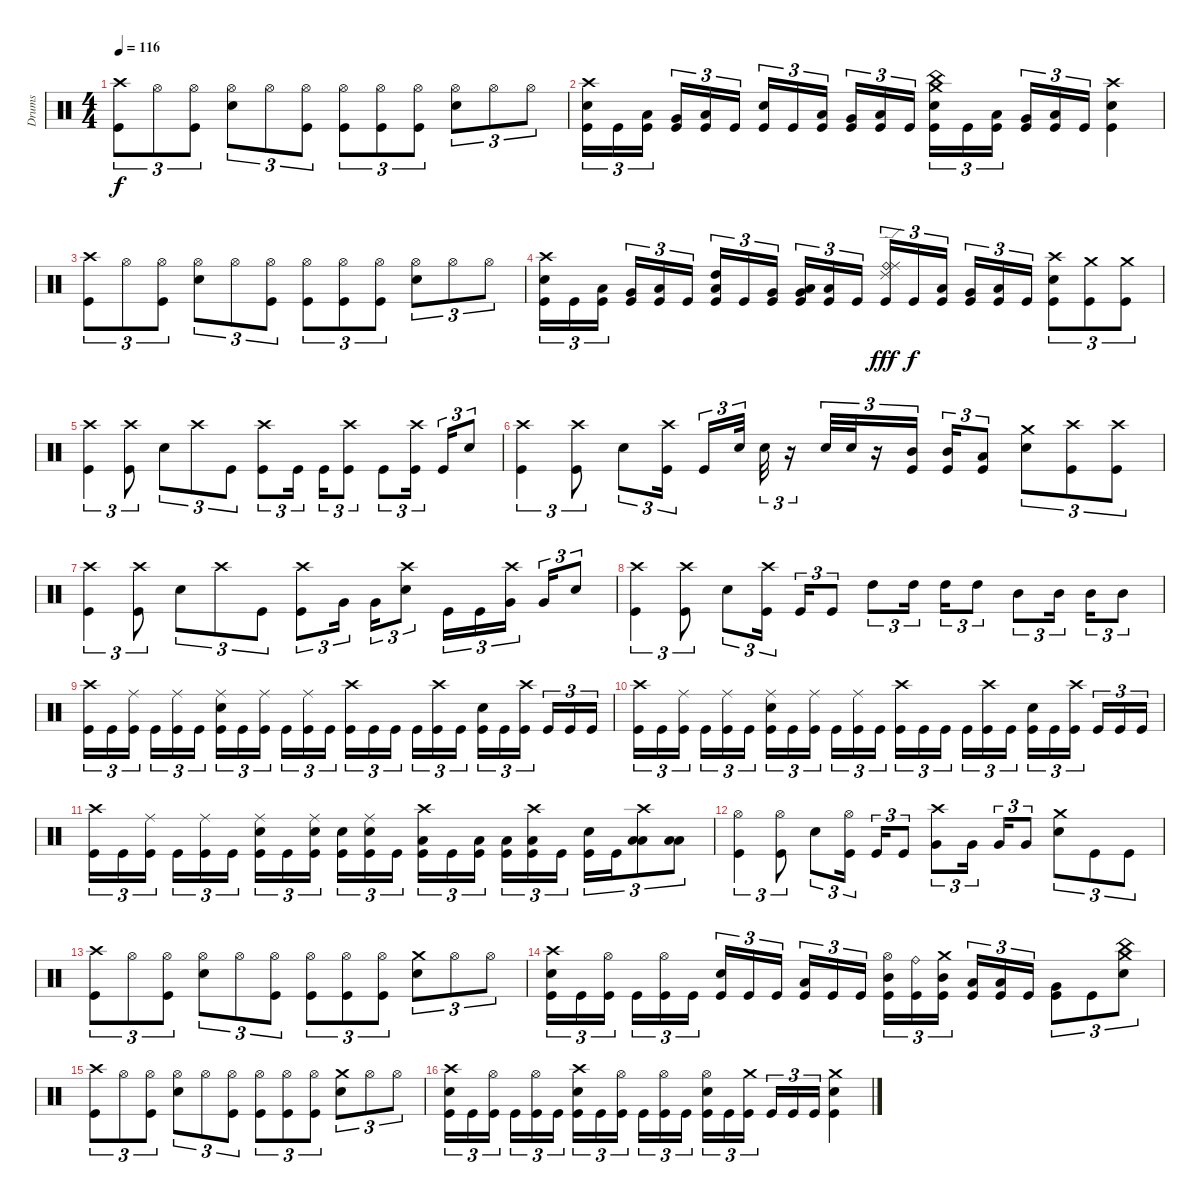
\track ("Drums" "Drums") {instrument percussion}
\staff {score}
\articulation defaults
\ts (4 4)
\tempo 116
\clef neutral
\ks c
("Crash high (hit)" "Kick (hit)").8{tu (3 2) dy f} "Hi-Hat (open)".8{tu (3 2)} ("Hi-Hat (open)" "Kick (hit)").8{tu (3 2)} ("Hi-Hat (open)" "Electric Snare (hit)").8{tu (3 2)} "Hi-Hat (open)".8{tu (3 2)} ("Hi-Hat (open)" "Kick (hit)").8{tu (3 2)} ("Hi-Hat (open)" "Kick (hit)").8{tu (3 2)} ("Hi-Hat (open)" "Kick (hit)").8{tu (3 2)} ("Hi-Hat (open)" "Kick (hit)").8{tu (3 2)} ("Hi-Hat (open)" "Electric Snare (hit)").8{tu (3 2)} "Hi-Hat (open)".8{tu (3 2)} "Hi-Hat (open)".8{tu (3 2)} |
("Crash high (hit)" "Electric Snare (hit)" "Kick (hit)").16{tu (3 2)} "Kick (hit)".16{tu (3 2)} ("Low Tom (hit)" "Kick (hit)").16{tu (3 2)} ("Very Low Tom (hit)" "Kick (hit)").16{tu (3 2)} ("Low Tom (hit)" "Kick (hit)").16{tu (3 2)} "Kick (hit)".16{tu (3 2)} ("Electric Snare (hit)" "Kick (hit)").16{tu (3 2)} "Kick (hit)".16{tu (3 2)} ("Low Tom (hit)" "Kick (hit)").16{tu (3 2)} ("Very Low Tom (hit)" "Kick (hit)").16{tu (3 2)} ("Low Tom (hit)" "Kick (hit)").16{tu (3 2)} "Kick (hit)".16{tu (3 2)} ("Crash medium (hit)" "China (hit)" "Electric Snare (hit)" "Kick (hit)").16{tu (3 2)} "Kick (hit)".16{tu (3 2)} ("Low Tom (hit)" "Kick (hit)").16{tu (3 2)} ("Very Low Tom (hit)" "Kick (hit)").16{tu (3 2)} ("Low Tom (hit)" "Kick (hit)").16{tu (3 2)} "Kick (hit)".16{tu (3 2)} ("Crash high (hit)" "Electric Snare (hit)" "Kick (hit)").4 |
("Crash high (hit)" "Kick (hit)").8{tu (3 2)} "Hi-Hat (open)".8{tu (3 2)} ("Hi-Hat (open)" "Kick (hit)").8{tu (3 2)} ("Hi-Hat (open)" "Electric Snare (hit)").8{tu (3 2)} "Hi-Hat (open)".8{tu (3 2)} ("Hi-Hat (open)" "Kick (hit)").8{tu (3 2)} ("Hi-Hat (open)" "Kick (hit)").8{tu (3 2)} ("Hi-Hat (open)" "Kick (hit)").8{tu (3 2)} ("Hi-Hat (open)" "Kick (hit)").8{tu (3 2)} ("Hi-Hat (open)" "Electric Snare (hit)").8{tu (3 2)} "Hi-Hat (open)".8{tu (3 2)} "Hi-Hat (open)".8{tu (3 2)} |
("Crash high (hit)" "Electric Snare (hit)" "Kick (hit)").16{tu (3 2)} "Kick (hit)".16{tu (3 2)} ("Low Tom (hit)" "Kick (hit)").16{tu (3 2)} ("Very Low Tom (hit)" "Kick (hit)").16{tu (3 2)} ("Low Tom (hit)" "Kick (hit)").16{tu (3 2)} "Kick (hit)".16{tu (3 2)} ("High Tom (hit)" "Low Tom (hit)" "Kick (hit)").16{tu (3 2)} "Kick (hit)".16{tu (3 2)} ("Very Low Tom (hit)" "Kick (hit)").16{tu (3 2)} ("Very Low Tom (hit)" "Low Tom (hit)" "Kick (hit)").16{tu (3 2)} ("Low Tom (hit)" "Kick (hit)").16{tu (3 2)} "Kick (hit)".16{tu (3 2)} ("Ride (bell)" "Ride (middle)" "Ride (edge) 2" "Kick (hit)").16{tu (3 2) dy fff} "Kick (hit)".16{tu (3 2) dy f} ("Low Tom (hit)" "Kick (hit)").16{tu (3 2)} ("Very Low Tom (hit)" "Kick (hit)").16{tu (3 2)} ("Low Tom (hit)" "Kick (hit)").16{tu (3 2)} "Kick (hit)".16{tu (3 2)} ("Crash high (hit)" "Electric Snare (hit)" "Kick (hit)").8{tu (3 2)} ("Crash medium (hit)" "Kick (hit)").8{tu (3 2)} ("Crash medium (hit)" "Kick (hit)").8{tu (3 2)} |
("Crash high (hit)" "Kick (hit)").4{tu (3 2)} ("Crash high (hit)" "Kick (hit)").8{tu (3 2)} "Electric Snare (hit)".8{tu (3 2)} "Crash high (hit)".8{tu (3 2)} "Kick (hit)".8{tu (3 2)} ("Crash high (hit)" "Kick (hit)").8{tu (3 2)} "Kick (hit)".16{tu (3 2)} "Kick (hit)".16{tu (3 2)} ("Crash high (hit)" "Kick (hit)").8{tu (3 2)} "Kick (hit)".8{tu (3 2)} ("Crash high (hit)" "Kick (hit)").16{tu (3 2)} "Kick (hit)".16{tu (3 2)} "Electric Snare (hit)".8{tu (3 2)} |
("Crash high (hit)" "Kick (hit)").4{tu (3 2)} ("Crash high (hit)" "Kick (hit)").8{tu (3 2)} "Electric Snare (hit)".8{tu (3 2)} ("Crash high (hit)" "Kick (hit)").16{tu (3 2)} "Kick (hit)".16{tu (3 2)} "Electric Snare (hit)".32{tu (3 2)} "Electric Snare (hit)".32{tu (3 2)} r.16{tu (3 2)} "Electric Snare (hit)".32{tu (3 2)} "Electric Snare (hit)".32{tu (3 2)} r.16{tu (3 2)} ("Mid Tom (hit)" "Kick (hit)").16{tu (3 2)} ("Mid Tom (hit)" "Kick (hit)").16{tu (3 2)} ("Low Tom (hit)" "Kick (hit)").8{tu (3 2)} ("Crash medium (hit)" "Electric Snare (hit)").8{tu (3 2)} ("Crash high (hit)" "Kick (hit)").8{tu (3 2)} ("Crash high (hit)" "Kick (hit)").8{tu (3 2)} |
("Crash high (hit)" "Kick (hit)").4{tu (3 2)} ("Crash high (hit)" "Kick (hit)").8{tu (3 2)} "Electric Snare (hit)".8{tu (3 2)} "Crash high (hit)".8{tu (3 2)} "Kick (hit)".8{tu (3 2)} ("Crash high (hit)" "Kick (hit)").8{tu (3 2)} "Very Low Tom (hit)".16{tu (3 2)} "Very Low Tom (hit)".16{tu (3 2)} ("Crash high (hit)" "Electric Snare (hit)").8{tu (3 2)} "Kick (hit)".16{tu (3 2)} "Kick (hit)".16{tu (3 2)} ("Crash high (hit)" "Very Low Tom (hit)").16{tu (3 2)} "Very Low Tom (hit)".16{tu (3 2)} "Electric Snare (hit)".8{tu (3 2)} |
("Crash high (hit)" "Kick (hit)").4{tu (3 2)} ("Crash high (hit)" "Kick (hit)").8{tu (3 2)} "Electric Snare (hit)".8{tu (3 2)} ("Crash high (hit)" "Kick (hit)").16{tu (3 2)} "Kick (hit)".16{tu (3 2)} "Kick (hit)".8{tu (3 2)} "High Tom (hit)".8{tu (3 2)} "High Tom (hit)".16{tu (3 2)} "High Tom (hit)".16{tu (3 2)} "High Tom (hit)".8{tu (3 2)} "Mid Tom (hit)".8{tu (3 2)} "Mid Tom (hit)".16{tu (3 2)} "Mid Tom (hit)".16{tu (3 2)} "Mid Tom (hit)".8{tu (3 2)} |
("Crash high (hit)" "Kick (hit)").16{tu (3 2)} "Kick (hit)".16{tu (3 2)} ("Ride (middle)" "Kick (hit)").16{tu (3 2)} "Kick (hit)".16{tu (3 2)} ("Ride (middle)" "Kick (hit)").16{tu (3 2)} "Kick (hit)".16{tu (3 2)} ("Ride (middle)" "Electric Snare (hit)" "Kick (hit)").16{tu (3 2)} "Kick (hit)".16{tu (3 2)} ("Ride (middle)" "Kick (hit)").16{tu (3 2)} "Kick (hit)".16{tu (3 2)} ("Ride (middle)" "Kick (hit)").16{tu (3 2)} "Kick (hit)".16{tu (3 2)} ("Crash high (hit)" "Kick (hit)").16{tu (3 2)} "Kick (hit)".16{tu (3 2)} "Kick (hit)".16{tu (3 2)} "Kick (hit)".16{tu (3 2)} ("Crash high (hit)" "Kick (hit)").16{tu (3 2)} "Kick (hit)".16{tu (3 2)} ("Electric Snare (hit)" "Kick (hit)").16{tu (3 2)} "Kick (hit)".16{tu (3 2)} ("Crash high (hit)" "Kick (hit)").16{tu (3 2)} "Kick (hit)".16{tu (3 2)} "Kick (hit)".16{tu (3 2)} "Kick (hit)".16{tu (3 2)} |
("Crash high (hit)" "Kick (hit)").16{tu (3 2)} "Kick (hit)".16{tu (3 2)} ("Ride (middle)" "Kick (hit)").16{tu (3 2)} "Kick (hit)".16{tu (3 2)} ("Ride (middle)" "Kick (hit)").16{tu (3 2)} "Kick (hit)".16{tu (3 2)} ("Ride (middle)" "Electric Snare (hit)" "Kick (hit)").16{tu (3 2)} "Kick (hit)".16{tu (3 2)} ("Ride (middle)" "Kick (hit)").16{tu (3 2)} "Kick (hit)".16{tu (3 2)} ("Ride (middle)" "Kick (hit)").16{tu (3 2)} "Kick (hit)".16{tu (3 2)} ("Crash high (hit)" "Kick (hit)").16{tu (3 2)} "Kick (hit)".16{tu (3 2)} "Kick (hit)".16{tu (3 2)} "Kick (hit)".16{tu (3 2)} ("Crash high (hit)" "Kick (hit)").16{tu (3 2)} "Kick (hit)".16{tu (3 2)} ("Electric Snare (hit)" "Kick (hit)").16{tu (3 2)} "Kick (hit)".16{tu (3 2)} ("Crash high (hit)" "Kick (hit)").16{tu (3 2)} "Kick (hit)".16{tu (3 2)} "Kick (hit)".16{tu (3 2)} "Kick (hit)".16{tu (3 2)} |
("Crash high (hit)" "Kick (hit)").16{tu (3 2)} "Kick (hit)".16{tu (3 2)} ("Ride (middle)" "Kick (hit)").16{tu (3 2)} "Kick (hit)".16{tu (3 2)} ("Ride (middle)" "Kick (hit)").16{tu (3 2)} "Kick (hit)".16{tu (3 2)} ("Ride (middle)" "Electric Snare (hit)" "Kick (hit)").16{tu (3 2)} "Kick (hit)".16{tu (3 2)} ("Ride (middle)" "Electric Snare (hit)" "Kick (hit)").16{tu (3 2)} ("Electric Snare (hit)" "Kick (hit)").16{tu (3 2)} ("Ride (middle)" "Electric Snare (hit)" "Kick (hit)").16{tu (3 2)} "Kick (hit)".16{tu (3 2)} ("Crash high (hit)" "Low Tom (hit)" "Kick (hit)").16{tu (3 2)} "Kick (hit)".16{tu (3 2)} ("Low Tom (hit)" "Kick (hit)").16{tu (3 2)} ("Low Tom (hit)" "Kick (hit)").16{tu (3 2)} ("Crash high (hit)" "Low Tom (hit)" "Kick (hit)").16{tu (3 2)} "Kick (hit)".16{tu (3 2)} ("Electric Snare (hit)" "Kick (hit)").16{tu (3 2)} "Kick (hit)".16{tu (3 2)} ("Crash high (hit)" "Low Tom (hit)" "Low Floor Tom (hit)").8{tu (3 2)} ("Low Tom (hit)" "Low Floor Tom (hit)").8{tu (3 2)} |
("Hi-Hat (open)" "Kick (hit)").4{tu (3 2)} ("Hi-Hat (open)" "Kick (hit)").8{tu (3 2)} "Electric Snare (hit)".8{tu (3 2)} ("Hi-Hat (open)" "Kick (hit)").16{tu (3 2)} "Kick (hit)".16{tu (3 2)} "Kick (hit)".8{tu (3 2)} ("Crash high (hit)" "Very Low Tom (hit)").8{tu (3 2)} "Very Low Tom (hit)".16{tu (3 2)} "Very Low Tom (hit)".16{tu (3 2)} "Very Low Tom (hit)".8{tu (3 2)} ("Crash medium (hit)" "Electric Snare (hit)").8{tu (3 2)} "Kick (hit)".8{tu (3 2)} "Kick (hit)".8{tu (3 2)} |
("Crash high (hit)" "Kick (hit)").8{tu (3 2)} "Hi-Hat (open)".8{tu (3 2)} ("Hi-Hat (open)" "Kick (hit)").8{tu (3 2)} ("Hi-Hat (open)" "Electric Snare (hit)").8{tu (3 2)} "Hi-Hat (open)".8{tu (3 2)} ("Hi-Hat (open)" "Kick (hit)").8{tu (3 2)} ("Hi-Hat (open)" "Kick (hit)").8{tu (3 2)} ("Hi-Hat (open)" "Kick (hit)").8{tu (3 2)} ("Hi-Hat (open)" "Kick (hit)").8{tu (3 2)} ("Crash medium (hit)" "Electric Snare (hit)").8{tu (3 2)} "Hi-Hat (open)".8{tu (3 2)} "Hi-Hat (open)".8{tu (3 2)} |
("Crash high (hit)" "Electric Snare (hit)" "Kick (hit)").16{tu (3 2)} "Kick (hit)".16{tu (3 2)} ("Hi-Hat (open)" "Kick (hit)").16{tu (3 2)} "Kick (hit)".16{tu (3 2)} ("Hi-Hat (open)" "Kick (hit)").16{tu (3 2)} "Kick (hit)".16{tu (3 2)} ("Electric Snare (hit)" "Kick (hit)").16{tu (3 2)} "Kick (hit)".16{tu (3 2)} "Kick (hit)".16{tu (3 2)} ("Low Tom (hit)" "Kick (hit)").16{tu (3 2)} "Kick (hit)".16{tu (3 2)} "Kick (hit)".16{tu (3 2)} ("Hi-Hat (open)" "Mid Tom (hit)" "Kick (hit)").16{tu (3 2)} ("Ride (bell)" "Kick (hit)").16{tu (3 2)} ("Crash medium (hit)" "Mid Tom (hit)" "Kick (hit)").16{tu (3 2)} ("Low Tom (hit)" "Kick (hit)").16{tu (3 2)} ("Low Tom (hit)" "Kick (hit)").16{tu (3 2)} "Kick (hit)".16{tu (3 2)} ("Very Low Tom (hit)" "Kick (hit)").8{tu (3 2)} "Kick (hit)".8{tu (3 2)} ("Crash medium (hit)" "China (hit)" "Electric Snare (hit)").8{tu (3 2)} |
("Crash high (hit)" "Kick (hit)").8{tu (3 2)} "Hi-Hat (open)".8{tu (3 2)} ("Hi-Hat (open)" "Kick (hit)").8{tu (3 2)} ("Hi-Hat (open)" "Electric Snare (hit)").8{tu (3 2)} "Hi-Hat (open)".8{tu (3 2)} ("Hi-Hat (open)" "Kick (hit)").8{tu (3 2)} ("Hi-Hat (open)" "Kick (hit)").8{tu (3 2)} ("Hi-Hat (open)" "Kick (hit)").8{tu (3 2)} ("Hi-Hat (open)" "Kick (hit)").8{tu (3 2)} ("Crash medium (hit)" "Electric Snare (hit)").8{tu (3 2)} "Hi-Hat (open)".8{tu (3 2)} "Hi-Hat (open)".8{tu (3 2)} |
("Crash high (hit)" "Electric Snare (hit)" "Kick (hit)").16{tu (3 2)} "Kick (hit)".16{tu (3 2)} ("Hi-Hat (open)" "Kick (hit)").16{tu (3 2)} "Kick (hit)".16{tu (3 2)} ("Hi-Hat (open)" "Kick (hit)").16{tu (3 2)} "Kick (hit)".16{tu (3 2)} ("Crash high (hit)" "Electric Snare (hit)" "Kick (hit)").16{tu (3 2)} "Kick (hit)".16{tu (3 2)} ("Hi-Hat (open)" "Kick (hit)").16{tu (3 2)} "Kick (hit)".16{tu (3 2)} ("Hi-Hat (open)" "Kick (hit)").16{tu (3 2)} "Kick (hit)".16{tu (3 2)} ("Hi-Hat (open)" "Electric Snare (hit)" "Kick (hit)").16{tu (3 2)} "Kick (hit)".16{tu (3 2)} ("Crash medium (hit)" "Kick (hit)").16{tu (3 2)} "Kick (hit)".16{tu (3 2)} "Kick (hit)".16{tu (3 2)} "Kick (hit)".16{tu (3 2)} ("Crash medium (hit)" "Electric Snare (hit)" "Kick (hit)").4
